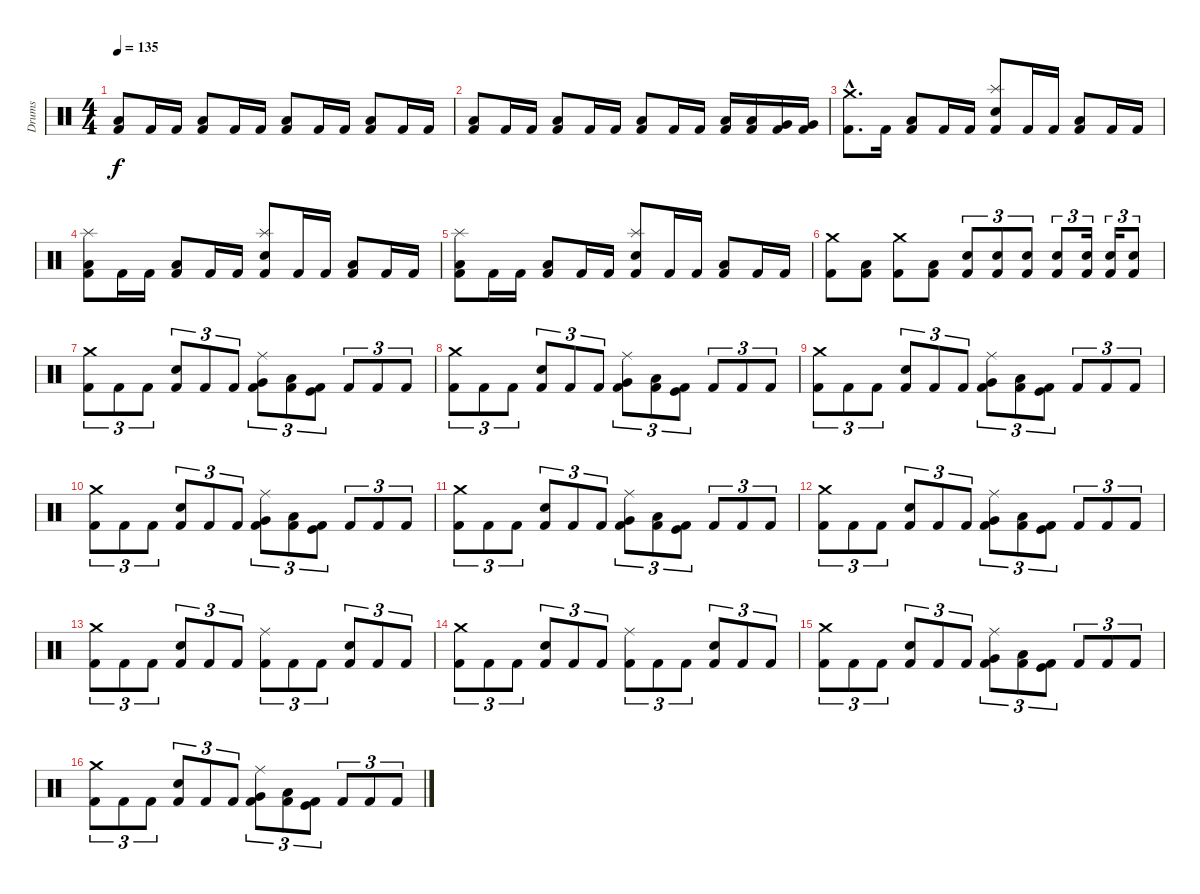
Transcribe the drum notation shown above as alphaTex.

\track ("Drums" "Drums") {instrument percussion}
\staff {score}
\articulation defaults
\ts (4 4)
\tempo 135
\clef neutral
\ks c
("Low Tom (hit)" "Kick (hit) 2").8{dy f} "Kick (hit) 2".16 "Kick (hit) 2".16 ("Low Tom (hit)" "Kick (hit) 2").8 "Kick (hit) 2".16 "Kick (hit) 2".16 ("Low Tom (hit)" "Kick (hit) 2").8 "Kick (hit) 2".16 "Kick (hit) 2".16 ("Low Tom (hit)" "Kick (hit) 2").8 "Kick (hit) 2".16 "Kick (hit) 2".16 |
("Low Tom (hit)" "Kick (hit) 2").8 "Kick (hit) 2".16 "Kick (hit) 2".16 ("Low Tom (hit)" "Kick (hit) 2").8 "Kick (hit) 2".16 "Kick (hit) 2".16 ("Low Tom (hit)" "Kick (hit) 2").8 "Kick (hit) 2".16 "Kick (hit) 2".16 ("Low Tom (hit)" "Kick (hit) 2").16 ("Low Tom (hit)" "Kick (hit) 2").16 ("Very Low Tom (hit)" "Kick (hit) 2").16 ("Very Low Tom (hit)" "Kick (hit) 2").16 |
("Crash medium (hit)"{hac} "Kick (hit) 2"{hac}).8{d} "Kick (hit) 2".16 ("Low Tom (hit)" "Kick (hit) 2").8 "Kick (hit) 2".16 "Kick (hit) 2".16 ("Splash (hit)" "Electric Snare (hit)" "Kick (hit) 2").8 "Kick (hit) 2".16 "Kick (hit) 2".16 ("Low Tom (hit)" "Kick (hit) 2").8 "Kick (hit) 2".16 "Kick (hit) 2".16 |
("Splash (hit)" "Low Tom (hit)" "Kick (hit) 2").8 "Kick (hit) 2".16 "Kick (hit) 2".16 ("Low Tom (hit)" "Kick (hit) 2").8 "Kick (hit) 2".16 "Kick (hit) 2".16 ("Splash (hit)" "Electric Snare (hit)" "Kick (hit) 2").8 "Kick (hit) 2".16 "Kick (hit) 2".16 ("Low Tom (hit)" "Kick (hit) 2").8 "Kick (hit) 2".16 "Kick (hit) 2".16 |
("Splash (hit)" "Low Tom (hit)" "Kick (hit) 2").8 "Kick (hit) 2".16 "Kick (hit) 2".16 ("Low Tom (hit)" "Kick (hit) 2").8 "Kick (hit) 2".16 "Kick (hit) 2".16 ("Splash (hit)" "Electric Snare (hit)" "Kick (hit) 2").8 "Kick (hit) 2".16 "Kick (hit) 2".16 ("Low Tom (hit)" "Kick (hit) 2").8 "Kick (hit) 2".16 "Kick (hit) 2".16 |
("Crash medium (hit)" "Kick (hit) 2").8 ("Low Tom (hit)" "Kick (hit) 2").8 ("Crash medium (hit)" "Kick (hit) 2").8 ("Low Tom (hit)" "Kick (hit) 2").8 ("Snare (hit) 2" "Kick (hit) 2").8{tu (3 2)} ("Snare (hit) 2" "Kick (hit) 2").8{tu (3 2)} ("Snare (hit) 2" "Kick (hit) 2").8{tu (3 2)} ("Electric Snare (hit)" "Kick (hit) 2").8{tu (3 2)} ("Electric Snare (hit)" "Kick (hit) 2").16{tu (3 2)} ("Electric Snare (hit)" "Kick (hit) 2").16{tu (3 2)} ("Electric Snare (hit)" "Kick (hit) 2").8{tu (3 2)} |
("Crash medium (hit)" "Kick (hit) 2").8{tu (3 2)} "Kick (hit) 2".8{tu (3 2)} "Kick (hit) 2".8{tu (3 2)} ("Snare (hit) 2" "Kick (hit) 2").8{tu (3 2)} "Kick (hit) 2".8{tu (3 2)} "Kick (hit) 2".8{tu (3 2)} ("Ride (middle)" "Very Low Tom (hit)" "Kick (hit) 2").8{tu (3 2)} ("Low Floor Tom (hit)" "Kick (hit) 2").8{tu (3 2)} ("Kick (hit)" "Kick (hit) 2").8{tu (3 2)} "Kick (hit) 2".8{tu (3 2)} "Kick (hit) 2".8{tu (3 2)} "Kick (hit) 2".8{tu (3 2)} |
("Crash medium (hit)" "Kick (hit) 2").8{tu (3 2)} "Kick (hit) 2".8{tu (3 2)} "Kick (hit) 2".8{tu (3 2)} ("Snare (hit) 2" "Kick (hit) 2").8{tu (3 2)} "Kick (hit) 2".8{tu (3 2)} "Kick (hit) 2".8{tu (3 2)} ("Ride (middle)" "Very Low Tom (hit)" "Kick (hit) 2").8{tu (3 2)} ("Low Floor Tom (hit)" "Kick (hit) 2").8{tu (3 2)} ("Kick (hit)" "Kick (hit) 2").8{tu (3 2)} "Kick (hit) 2".8{tu (3 2)} "Kick (hit) 2".8{tu (3 2)} "Kick (hit) 2".8{tu (3 2)} |
("Crash medium (hit)" "Kick (hit) 2").8{tu (3 2)} "Kick (hit) 2".8{tu (3 2)} "Kick (hit) 2".8{tu (3 2)} ("Snare (hit) 2" "Kick (hit) 2").8{tu (3 2)} "Kick (hit) 2".8{tu (3 2)} "Kick (hit) 2".8{tu (3 2)} ("Ride (middle)" "Very Low Tom (hit)" "Kick (hit) 2").8{tu (3 2)} ("Low Floor Tom (hit)" "Kick (hit) 2").8{tu (3 2)} ("Kick (hit)" "Kick (hit) 2").8{tu (3 2)} "Kick (hit) 2".8{tu (3 2)} "Kick (hit) 2".8{tu (3 2)} "Kick (hit) 2".8{tu (3 2)} |
("Crash medium (hit)" "Kick (hit) 2").8{tu (3 2)} "Kick (hit) 2".8{tu (3 2)} "Kick (hit) 2".8{tu (3 2)} ("Snare (hit) 2" "Kick (hit) 2").8{tu (3 2)} "Kick (hit) 2".8{tu (3 2)} "Kick (hit) 2".8{tu (3 2)} ("Ride (middle)" "Very Low Tom (hit)" "Kick (hit) 2").8{tu (3 2)} ("Low Floor Tom (hit)" "Kick (hit) 2").8{tu (3 2)} ("Kick (hit)" "Kick (hit) 2").8{tu (3 2)} "Kick (hit) 2".8{tu (3 2)} "Kick (hit) 2".8{tu (3 2)} "Kick (hit) 2".8{tu (3 2)} |
("Crash medium (hit)" "Kick (hit) 2").8{tu (3 2)} "Kick (hit) 2".8{tu (3 2)} "Kick (hit) 2".8{tu (3 2)} ("Snare (hit) 2" "Kick (hit) 2").8{tu (3 2)} "Kick (hit) 2".8{tu (3 2)} "Kick (hit) 2".8{tu (3 2)} ("Ride (middle)" "Very Low Tom (hit)" "Kick (hit) 2").8{tu (3 2)} ("Low Floor Tom (hit)" "Kick (hit) 2").8{tu (3 2)} ("Kick (hit)" "Kick (hit) 2").8{tu (3 2)} "Kick (hit) 2".8{tu (3 2)} "Kick (hit) 2".8{tu (3 2)} "Kick (hit) 2".8{tu (3 2)} |
("Crash medium (hit)" "Kick (hit) 2").8{tu (3 2)} "Kick (hit) 2".8{tu (3 2)} "Kick (hit) 2".8{tu (3 2)} ("Snare (hit) 2" "Kick (hit) 2").8{tu (3 2)} "Kick (hit) 2".8{tu (3 2)} "Kick (hit) 2".8{tu (3 2)} ("Ride (middle)" "Very Low Tom (hit)" "Kick (hit) 2").8{tu (3 2)} ("Low Floor Tom (hit)" "Kick (hit) 2").8{tu (3 2)} ("Kick (hit)" "Kick (hit) 2").8{tu (3 2)} "Kick (hit) 2".8{tu (3 2)} "Kick (hit) 2".8{tu (3 2)} "Kick (hit) 2".8{tu (3 2)} |
("Crash medium (hit)" "Kick (hit) 2").8{tu (3 2)} "Kick (hit) 2".8{tu (3 2)} "Kick (hit) 2".8{tu (3 2)} ("Snare (hit) 2" "Kick (hit) 2").8{tu (3 2)} "Kick (hit) 2".8{tu (3 2)} "Kick (hit) 2".8{tu (3 2)} ("Ride (middle)" "Kick (hit) 2").8{tu (3 2)} "Kick (hit) 2".8{tu (3 2)} "Kick (hit) 2".8{tu (3 2)} ("Snare (hit) 2" "Kick (hit) 2").8{tu (3 2)} "Kick (hit) 2".8{tu (3 2)} "Kick (hit) 2".8{tu (3 2)} |
("Crash medium (hit)" "Kick (hit) 2").8{tu (3 2)} "Kick (hit) 2".8{tu (3 2)} "Kick (hit) 2".8{tu (3 2)} ("Snare (hit) 2" "Kick (hit) 2").8{tu (3 2)} "Kick (hit) 2".8{tu (3 2)} "Kick (hit) 2".8{tu (3 2)} ("Ride (middle)" "Kick (hit) 2").8{tu (3 2)} "Kick (hit) 2".8{tu (3 2)} "Kick (hit) 2".8{tu (3 2)} ("Snare (hit) 2" "Kick (hit) 2").8{tu (3 2)} "Kick (hit) 2".8{tu (3 2)} "Kick (hit) 2".8{tu (3 2)} |
("Crash medium (hit)" "Kick (hit) 2").8{tu (3 2)} "Kick (hit) 2".8{tu (3 2)} "Kick (hit) 2".8{tu (3 2)} ("Snare (hit) 2" "Kick (hit) 2").8{tu (3 2)} "Kick (hit) 2".8{tu (3 2)} "Kick (hit) 2".8{tu (3 2)} ("Ride (middle)" "Very Low Tom (hit)" "Kick (hit) 2").8{tu (3 2)} ("Low Floor Tom (hit)" "Kick (hit) 2").8{tu (3 2)} ("Kick (hit)" "Kick (hit) 2").8{tu (3 2)} "Kick (hit) 2".8{tu (3 2)} "Kick (hit) 2".8{tu (3 2)} "Kick (hit) 2".8{tu (3 2)} |
("Crash medium (hit)" "Kick (hit) 2").8{tu (3 2)} "Kick (hit) 2".8{tu (3 2)} "Kick (hit) 2".8{tu (3 2)} ("Snare (hit) 2" "Kick (hit) 2").8{tu (3 2)} "Kick (hit) 2".8{tu (3 2)} "Kick (hit) 2".8{tu (3 2)} ("Ride (middle)" "Very Low Tom (hit)" "Kick (hit) 2").8{tu (3 2)} ("Low Floor Tom (hit)" "Kick (hit) 2").8{tu (3 2)} ("Kick (hit)" "Kick (hit) 2").8{tu (3 2)} "Kick (hit) 2".8{tu (3 2)} "Kick (hit) 2".8{tu (3 2)} "Kick (hit) 2".8{tu (3 2)}
